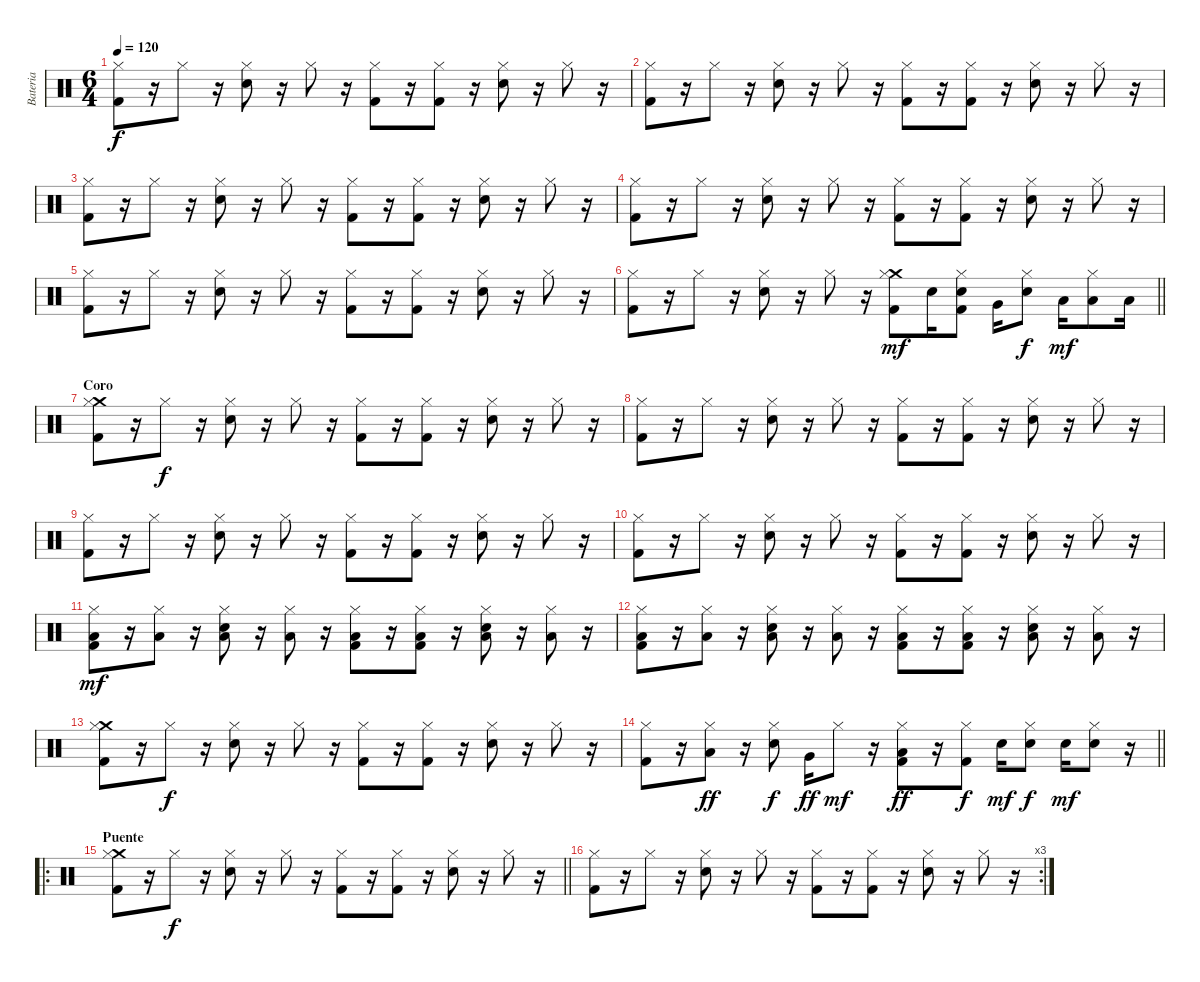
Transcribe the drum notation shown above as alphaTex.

\track ("Bateria" "Bateria") {instrument percussion}
\staff {score}
\articulation defaults
\ts (6 4)
\tempo 120
\clef neutral
\ks c
("Hi-Hat (closed)" "Kick (hit) 2").8{dy f} r.16 "Hi-Hat (closed)".8 r.16 ("Hi-Hat (closed)" "Snare (hit) 2").8 r.16 "Hi-Hat (closed)".8 r.16 ("Hi-Hat (closed)" "Kick (hit) 2").8 r.16 ("Hi-Hat (closed)" "Kick (hit) 2").8 r.16 ("Hi-Hat (closed)" "Snare (hit) 2").8 r.16 "Hi-Hat (closed)".8 r.16 |
("Hi-Hat (closed)" "Kick (hit) 2").8 r.16 "Hi-Hat (closed)".8 r.16 ("Hi-Hat (closed)" "Snare (hit) 2").8 r.16 "Hi-Hat (closed)".8 r.16 ("Hi-Hat (closed)" "Kick (hit) 2").8 r.16 ("Hi-Hat (closed)" "Kick (hit) 2").8 r.16 ("Hi-Hat (closed)" "Snare (hit) 2").8 r.16 "Hi-Hat (closed)".8 r.16 |
("Hi-Hat (closed)" "Kick (hit) 2").8 r.16 "Hi-Hat (closed)".8 r.16 ("Hi-Hat (closed)" "Snare (hit) 2").8 r.16 "Hi-Hat (closed)".8 r.16 ("Hi-Hat (closed)" "Kick (hit) 2").8 r.16 ("Hi-Hat (closed)" "Kick (hit) 2").8 r.16 ("Hi-Hat (closed)" "Snare (hit) 2").8 r.16 "Hi-Hat (closed)".8 r.16 |
("Hi-Hat (closed)" "Kick (hit) 2").8 r.16 "Hi-Hat (closed)".8 r.16 ("Hi-Hat (closed)" "Snare (hit) 2").8 r.16 "Hi-Hat (closed)".8 r.16 ("Hi-Hat (closed)" "Kick (hit) 2").8 r.16 ("Hi-Hat (closed)" "Kick (hit) 2").8 r.16 ("Hi-Hat (closed)" "Snare (hit) 2").8 r.16 "Hi-Hat (closed)".8 r.16 |
("Hi-Hat (closed)" "Kick (hit) 2").8 r.16 "Hi-Hat (closed)".8 r.16 ("Hi-Hat (closed)" "Snare (hit) 2").8 r.16 "Hi-Hat (closed)".8 r.16 ("Hi-Hat (closed)" "Kick (hit) 2").8 r.16 ("Hi-Hat (closed)" "Kick (hit) 2").8 r.16 ("Hi-Hat (closed)" "Snare (hit) 2").8 r.16 "Hi-Hat (closed)".8 r.16 |
\barLineRight lightlight
("Hi-Hat (closed)" "Kick (hit) 2").8 r.16 "Hi-Hat (closed)".8 r.16 ("Hi-Hat (closed)" "Snare (hit) 2").8 r.16 "Hi-Hat (closed)".8 r.16 ("Crash medium (hit)" "Hi-Hat (closed)" "Kick (hit) 2").8{dy mf} "Snare (hit) 2".16 ("Hi-Hat (closed)" "Snare (hit) 2" "Kick (hit) 2").8 "Very Low Tom (hit)".16 ("Hi-Hat (closed)" "Snare (hit) 2").8{dy f} "Low Tom (hit)".16{dy mf} ("Hi-Hat (closed)" "Low Tom (hit)").8 "Low Floor Tom (hit)".16 |
\section ("" "Coro")
("Crash medium (hit)" "Hi-Hat (closed)" "Kick (hit) 2").8 r.16 "Hi-Hat (closed)".8{dy f} r.16 ("Hi-Hat (closed)" "Snare (hit) 2").8 r.16 "Hi-Hat (closed)".8 r.16 ("Hi-Hat (closed)" "Kick (hit) 2").8 r.16 ("Hi-Hat (closed)" "Kick (hit) 2").8 r.16 ("Hi-Hat (closed)" "Snare (hit) 2").8 r.16 "Hi-Hat (closed)".8 r.16 |
("Hi-Hat (closed)" "Kick (hit) 2").8 r.16 "Hi-Hat (closed)".8 r.16 ("Hi-Hat (closed)" "Snare (hit) 2").8 r.16 "Hi-Hat (closed)".8 r.16 ("Hi-Hat (closed)" "Kick (hit) 2").8 r.16 ("Hi-Hat (closed)" "Kick (hit) 2").8 r.16 ("Hi-Hat (closed)" "Snare (hit) 2").8 r.16 "Hi-Hat (closed)".8 r.16 |
("Hi-Hat (closed)" "Kick (hit) 2").8 r.16 "Hi-Hat (closed)".8 r.16 ("Hi-Hat (closed)" "Snare (hit) 2").8 r.16 "Hi-Hat (closed)".8 r.16 ("Hi-Hat (closed)" "Kick (hit) 2").8 r.16 ("Hi-Hat (closed)" "Kick (hit) 2").8 r.16 ("Hi-Hat (closed)" "Snare (hit) 2").8 r.16 "Hi-Hat (closed)".8 r.16 |
("Hi-Hat (closed)" "Kick (hit) 2").8 r.16 "Hi-Hat (closed)".8 r.16 ("Hi-Hat (closed)" "Snare (hit) 2").8 r.16 "Hi-Hat (closed)".8 r.16 ("Hi-Hat (closed)" "Kick (hit) 2").8 r.16 ("Hi-Hat (closed)" "Kick (hit) 2").8 r.16 ("Hi-Hat (closed)" "Snare (hit) 2").8 r.16 "Hi-Hat (closed)".8 r.16 |
("Low Floor Tom (hit)" "Hi-Hat (closed)" "Kick (hit) 2").8{dy mf} r.16 ("Low Floor Tom (hit)" "Hi-Hat (closed)").8 r.16 ("Low Floor Tom (hit)" "Hi-Hat (closed)" "Snare (hit) 2").8 r.16 ("Low Floor Tom (hit)" "Hi-Hat (closed)").8 r.16 ("Low Floor Tom (hit)" "Hi-Hat (closed)" "Kick (hit) 2").8 r.16 ("Low Floor Tom (hit)" "Hi-Hat (closed)" "Kick (hit) 2").8 r.16 ("Low Floor Tom (hit)" "Hi-Hat (closed)" "Snare (hit) 2").8 r.16 ("Low Floor Tom (hit)" "Hi-Hat (closed)").8 r.16 |
("Low Floor Tom (hit)" "Hi-Hat (closed)" "Kick (hit) 2").8 r.16 ("Low Floor Tom (hit)" "Hi-Hat (closed)").8 r.16 ("Low Floor Tom (hit)" "Hi-Hat (closed)" "Snare (hit) 2").8 r.16 ("Low Floor Tom (hit)" "Hi-Hat (closed)").8 r.16 ("Low Floor Tom (hit)" "Hi-Hat (closed)" "Kick (hit) 2").8 r.16 ("Low Floor Tom (hit)" "Hi-Hat (closed)" "Kick (hit) 2").8 r.16 ("Low Floor Tom (hit)" "Hi-Hat (closed)" "Snare (hit) 2").8 r.16 ("Low Floor Tom (hit)" "Hi-Hat (closed)").8 r.16 |
("Crash medium (hit)" "Hi-Hat (closed)" "Kick (hit) 2").8 r.16 "Hi-Hat (closed)".8{dy f} r.16 ("Hi-Hat (closed)" "Snare (hit) 2").8 r.16 "Hi-Hat (closed)".8 r.16 ("Hi-Hat (closed)" "Kick (hit) 2").8 r.16 ("Hi-Hat (closed)" "Kick (hit) 2").8 r.16 ("Hi-Hat (closed)" "Snare (hit) 2").8 r.16 "Hi-Hat (closed)".8 r.16 |
\barLineRight lightlight
("Hi-Hat (closed)" "Kick (hit) 2").8 r.16 ("Hi-Hat (closed)" "Low Tom (hit)").8{dy ff} r.16 ("Hi-Hat (closed)" "Snare (hit) 2").8{dy f} "Very Low Tom (hit)".16{dy ff} "Hi-Hat (closed)".8{dy mf} r.16 ("Hi-Hat (closed)" "Low Tom (hit)" "Kick (hit) 2").8{dy ff} r.16 ("Hi-Hat (closed)" "Kick (hit) 2").8{dy f} "Snare (hit) 2".16{dy mf} ("Hi-Hat (closed)" "Snare (hit) 2").8{dy f} "Snare (hit) 2".16{dy mf} ("Hi-Hat (closed)" "Snare (hit) 2").8 r.16 |
\ro
\section ("" "Puente")
\barLineRight lightlight
("Crash medium (hit)" "Hi-Hat (closed)" "Kick (hit) 2").8 r.16 "Hi-Hat (closed)".8{dy f} r.16 ("Hi-Hat (closed)" "Snare (hit) 2").8 r.16 "Hi-Hat (closed)".8 r.16 ("Hi-Hat (closed)" "Kick (hit) 2").8 r.16 ("Hi-Hat (closed)" "Kick (hit) 2").8 r.16 ("Hi-Hat (closed)" "Snare (hit) 2").8 r.16 "Hi-Hat (closed)".8 r.16 |
\rc 3
("Hi-Hat (closed)" "Kick (hit) 2").8 r.16 "Hi-Hat (closed)".8 r.16 ("Hi-Hat (closed)" "Snare (hit) 2").8 r.16 "Hi-Hat (closed)".8 r.16 ("Hi-Hat (closed)" "Kick (hit) 2").8 r.16 ("Hi-Hat (closed)" "Kick (hit) 2").8 r.16 ("Hi-Hat (closed)" "Snare (hit) 2").8 r.16 "Hi-Hat (closed)".8 r.16
